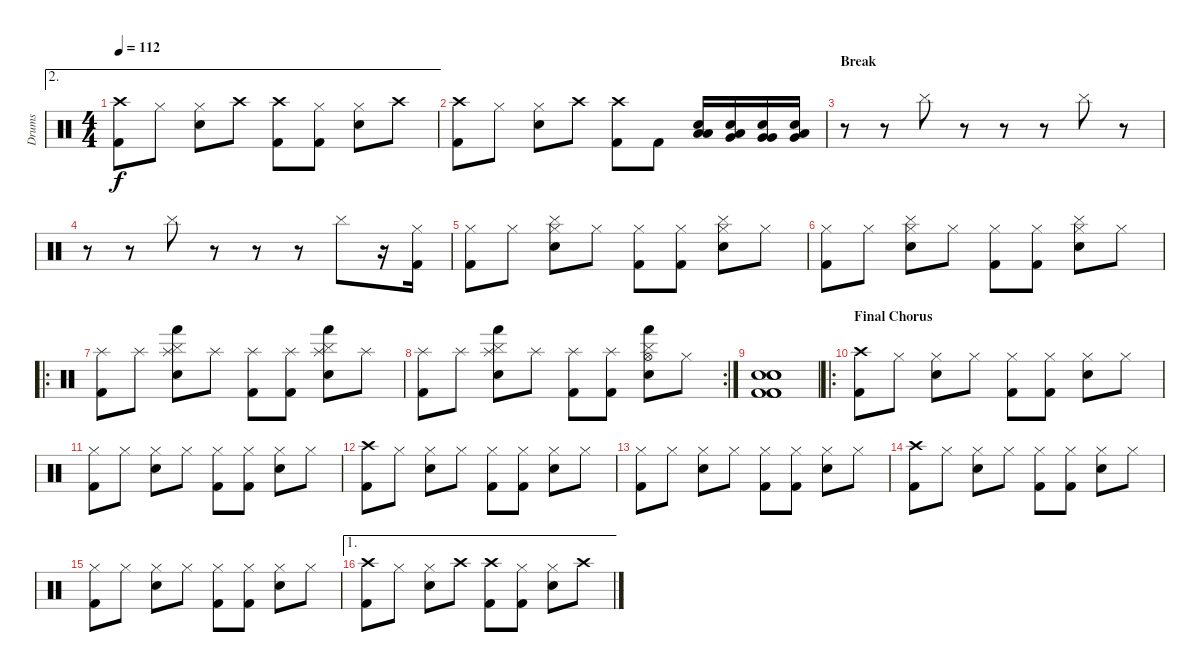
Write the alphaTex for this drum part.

\track ("Drums" "Drums") {instrument percussion}
\staff {score}
\articulation defaults
\ae 2
\ts (4 4)
\tempo 112
\clef neutral
\ks c
("Crash high (hit)" "Kick (hit) 2").8{dy f} "Hi-Hat (closed)".8 ("Hi-Hat (closed)" "Electric Snare (hit)").8 "Crash high (hit)".8 ("Crash high (hit)" "Kick (hit) 2").8 ("Hi-Hat (closed)" "Kick (hit) 2").8 ("Hi-Hat (closed)" "Electric Snare (hit)").8 "Crash high (hit)".8 |
("Crash high (hit)" "Kick (hit) 2").8 "Hi-Hat (closed)".8 ("Hi-Hat (closed)" "Electric Snare (hit)").8 "Crash high (hit)".8 ("Crash high (hit)" "Kick (hit) 2").8 "Kick (hit) 2".8 ("Low Tom (hit)" "Low Tom (hit)" "Electric Snare (hit)").16 ("Low Tom (hit)" "Very Low Tom (hit)" "Electric Snare (hit)").16 ("Very Low Tom (hit)" "Very Low Tom (hit)" "Electric Snare (hit)").16 ("Very Low Tom (hit)" "Low Floor Tom (hit)" "Electric Snare (hit)").16 |
\section ("" "Break")
r.8 r.8 "Cymbal (hit)".8 r.8 r.8 r.8 "Cymbal (hit)".8 r.8 |
r.8 r.8 "Cymbal (hit)".8 r.8 r.8 r.8 "Cymbal (hit)".8 r.16 ("Kick (hit) 2" "Hi-Hat (closed)").16 |
("Hi-Hat (closed)" "Kick (hit) 2").8 "Hi-Hat (closed)".8 ("Hi-Hat (closed)" "Cymbal (hit)" "Snare (hit) 2").8 "Hi-Hat (closed)".8 ("Hi-Hat (closed)" "Kick (hit) 2").8 ("Hi-Hat (closed)" "Kick (hit) 2").8 ("Hi-Hat (closed)" "Cymbal (hit)" "Snare (hit) 2").8 "Hi-Hat (closed)".8 |
("Hi-Hat (closed)" "Kick (hit) 2").8 "Hi-Hat (closed)".8 ("Hi-Hat (closed)" "Cymbal (hit)" "Snare (hit) 2").8 "Hi-Hat (closed)".8 ("Hi-Hat (closed)" "Kick (hit) 2").8 ("Hi-Hat (closed)" "Kick (hit) 2").8 ("Hi-Hat (closed)" "Cymbal (hit)" "Snare (hit) 2").8 "Hi-Hat (closed)".8 |
\ro
("Splash (hit)" "Kick (hit) 2").8 "Splash (hit)".8 ("Splash (hit)" "Hand (hit)" "Snare (hit) 2" "Cymbal (hit)").8 "Splash (hit)".8 ("Splash (hit)" "Kick (hit) 2").8 ("Splash (hit)" "Kick (hit) 2").8 ("Splash (hit)" "Cymbal (hit)" "Snare (hit) 2" "Hand (hit)").8 "Splash (hit)".8 |
\rc 2
("Splash (hit)" "Kick (hit) 2").8 "Splash (hit)".8 ("Splash (hit)" "Hand (hit)" "Snare (hit) 2" "Cymbal (hit)").8 "Splash (hit)".8 ("Splash (hit)" "Kick (hit) 2").8 ("Splash (hit)" "Kick (hit) 2").8 ("Hi-Hat (open)" "Cymbal (hit)" "Snare (hit) 2" "Hand (hit)").8 "Hi-Hat (closed)".8 |
("Snare (hit) 2" "Kick (hit) 2" "Snare (hit) 2" "Kick (hit) 2" "Snare (hit) 2" "Kick (hit) 2").1 |
\ro
\section ("" "Final Chorus")
("Crash high (hit)" "Kick (hit) 2").8 "Hi-Hat (closed)".8 ("Hi-Hat (closed)" "Electric Snare (hit)").8 "Hi-Hat (closed)".8 ("Hi-Hat (closed)" "Kick (hit) 2").8 ("Hi-Hat (closed)" "Kick (hit) 2").8 ("Hi-Hat (closed)" "Electric Snare (hit)").8 "Hi-Hat (closed)".8 |
("Hi-Hat (closed)" "Kick (hit) 2").8 "Hi-Hat (closed)".8 ("Hi-Hat (closed)" "Electric Snare (hit)").8 "Hi-Hat (closed)".8 ("Hi-Hat (closed)" "Kick (hit) 2").8 ("Hi-Hat (closed)" "Kick (hit) 2").8 ("Hi-Hat (closed)" "Electric Snare (hit)").8 "Hi-Hat (closed)".8 |
("Crash high (hit)" "Kick (hit) 2").8 "Hi-Hat (closed)".8 ("Hi-Hat (closed)" "Electric Snare (hit)").8 "Hi-Hat (closed)".8 ("Hi-Hat (closed)" "Kick (hit) 2").8 ("Hi-Hat (closed)" "Kick (hit) 2").8 ("Hi-Hat (closed)" "Electric Snare (hit)").8 "Hi-Hat (closed)".8 |
("Hi-Hat (closed)" "Kick (hit) 2").8 "Hi-Hat (closed)".8 ("Hi-Hat (closed)" "Electric Snare (hit)").8 "Hi-Hat (closed)".8 ("Hi-Hat (closed)" "Kick (hit) 2").8 ("Hi-Hat (closed)" "Kick (hit) 2").8 ("Hi-Hat (closed)" "Electric Snare (hit)").8 "Hi-Hat (closed)".8 |
("Crash high (hit)" "Kick (hit) 2").8 "Hi-Hat (closed)".8 ("Hi-Hat (closed)" "Electric Snare (hit)").8 "Hi-Hat (closed)".8 ("Hi-Hat (closed)" "Kick (hit) 2").8 ("Hi-Hat (closed)" "Kick (hit) 2").8 ("Hi-Hat (closed)" "Electric Snare (hit)").8 "Hi-Hat (closed)".8 |
("Hi-Hat (closed)" "Kick (hit) 2").8 "Hi-Hat (closed)".8 ("Hi-Hat (closed)" "Electric Snare (hit)").8 "Hi-Hat (closed)".8 ("Hi-Hat (closed)" "Kick (hit) 2").8 ("Hi-Hat (closed)" "Kick (hit) 2").8 ("Hi-Hat (closed)" "Electric Snare (hit)").8 "Hi-Hat (closed)".8 |
\ae 1
("Crash high (hit)" "Kick (hit) 2").8 "Hi-Hat (closed)".8 ("Hi-Hat (closed)" "Electric Snare (hit)").8 "Crash high (hit)".8 ("Crash high (hit)" "Kick (hit) 2").8 ("Hi-Hat (closed)" "Kick (hit) 2").8 ("Hi-Hat (closed)" "Electric Snare (hit)").8 "Crash high (hit)".8
